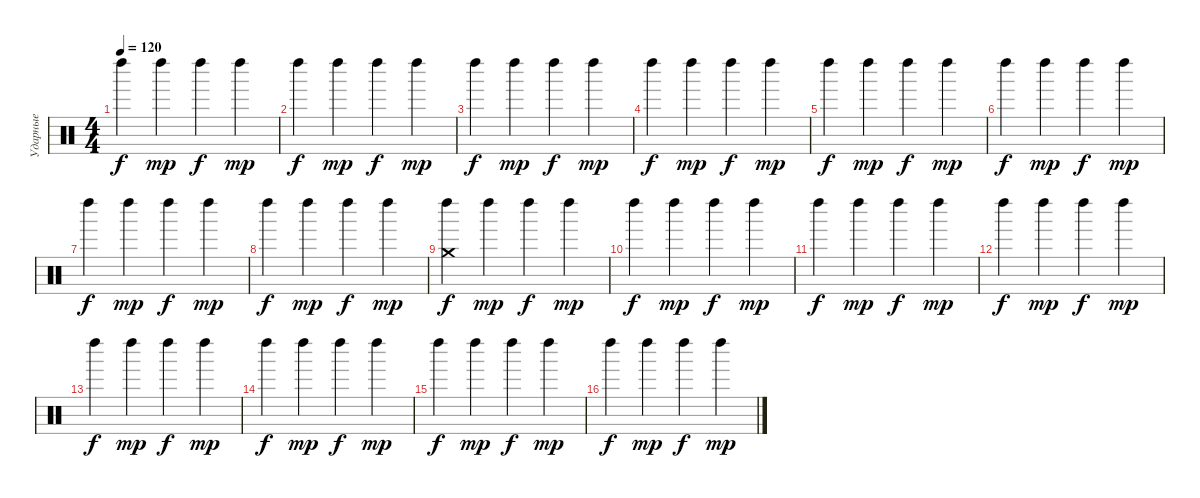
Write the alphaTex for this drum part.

\track ("Ударные" "Ударные") {instrument percussion}
\staff {score}
\articulation defaults
\ts (4 4)
\tempo 120
\clef neutral
\ks c "Left Maraca (hit)".4{dy f} "Left Maraca (hit)".4{dy mp} "Left Maraca (hit)".4{dy f} "Left Maraca (hit)".4{dy mp}
|
"Left Maraca (hit)".4{dy f} "Left Maraca (hit)".4{dy mp} "Left Maraca (hit)".4{dy f} "Left Maraca (hit)".4{dy mp} |
"Left Maraca (hit)".4{dy f} "Left Maraca (hit)".4{dy mp} "Left Maraca (hit)".4{dy f} "Left Maraca (hit)".4{dy mp} |
"Left Maraca (hit)".4{dy f} "Left Maraca (hit)".4{dy mp} "Left Maraca (hit)".4{dy f} "Left Maraca (hit)".4{dy mp} |
"Left Maraca (hit)".4{dy f} "Left Maraca (hit)".4{dy mp} "Left Maraca (hit)".4{dy f} "Left Maraca (hit)".4{dy mp} |
"Left Maraca (hit)".4{dy f} "Left Maraca (hit)".4{dy mp} "Left Maraca (hit)".4{dy f} "Left Maraca (hit)".4{dy mp} |
"Left Maraca (hit)".4{dy f} "Left Maraca (hit)".4{dy mp} "Left Maraca (hit)".4{dy f} "Left Maraca (hit)".4{dy mp} |
"Left Maraca (hit)".4{dy f} "Left Maraca (hit)".4{dy mp} "Left Maraca (hit)".4{dy f} "Left Maraca (hit)".4{dy mp} |
("Crash medium (hit)" "Left Maraca (hit)").4{dy f} "Left Maraca (hit)".4{dy mp} "Left Maraca (hit)".4{dy f} "Left Maraca (hit)".4{dy mp} |
"Left Maraca (hit)".4{dy f} "Left Maraca (hit)".4{dy mp} "Left Maraca (hit)".4{dy f} "Left Maraca (hit)".4{dy mp} |
"Left Maraca (hit)".4{dy f} "Left Maraca (hit)".4{dy mp} "Left Maraca (hit)".4{dy f} "Left Maraca (hit)".4{dy mp} |
"Left Maraca (hit)".4{dy f} "Left Maraca (hit)".4{dy mp} "Left Maraca (hit)".4{dy f} "Left Maraca (hit)".4{dy mp} |
"Left Maraca (hit)".4{dy f} "Left Maraca (hit)".4{dy mp} "Left Maraca (hit)".4{dy f} "Left Maraca (hit)".4{dy mp} |
"Left Maraca (hit)".4{dy f} "Left Maraca (hit)".4{dy mp} "Left Maraca (hit)".4{dy f} "Left Maraca (hit)".4{dy mp} |
"Left Maraca (hit)".4{dy f} "Left Maraca (hit)".4{dy mp} "Left Maraca (hit)".4{dy f} "Left Maraca (hit)".4{dy mp} |
"Left Maraca (hit)".4{dy f} "Left Maraca (hit)".4{dy mp} "Left Maraca (hit)".4{dy f} "Left Maraca (hit)".4{dy mp}
